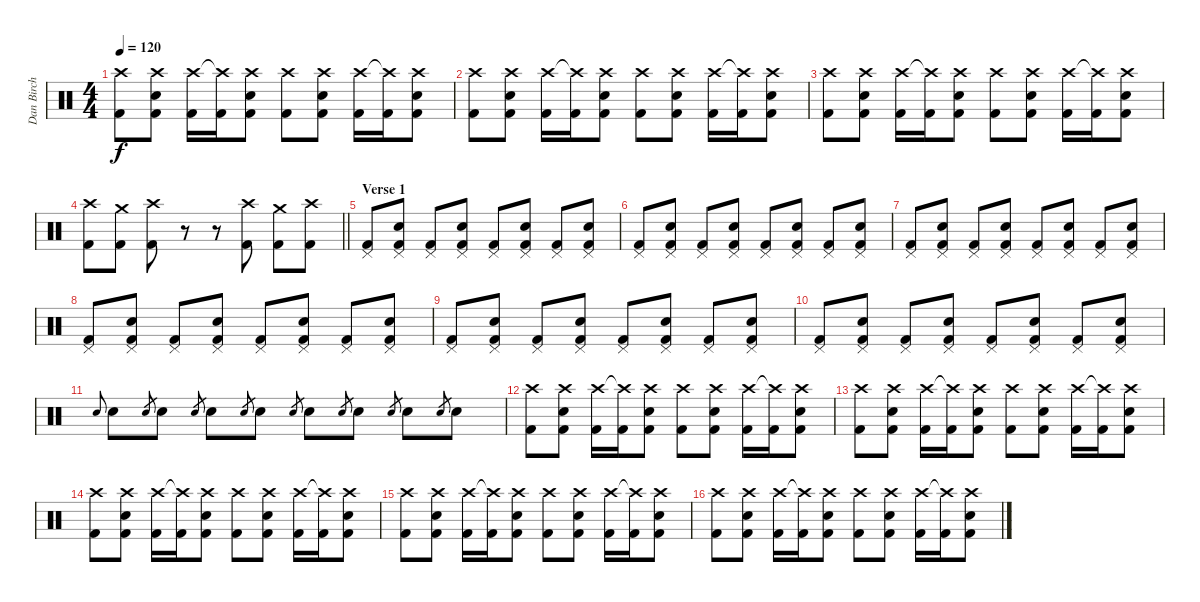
\track ("Dan Birch" "Dan Birch") {instrument percussion}
\staff {score}
\articulation defaults
\ts (4 4)
\tempo 120
\clef neutral
\ks c
("Crash high (hit)" "Kick (hit) 2").8{dy f} ("Crash high (hit)" "Snare (hit) 2" "Kick (hit) 2").8 ("Crash high (hit)" "Kick (hit) 2").16 ("Crash high (hit)"{t} "Kick (hit) 2").16 ("Crash high (hit)" "Snare (hit) 2" "Kick (hit) 2").8 ("Crash high (hit)" "Kick (hit) 2").8 ("Crash high (hit)" "Snare (hit) 2" "Kick (hit) 2").8 ("Crash high (hit)" "Kick (hit) 2").16 ("Crash high (hit)"{t} "Kick (hit) 2").16 ("Crash high (hit)" "Snare (hit) 2" "Kick (hit) 2").8 |
("Crash high (hit)" "Kick (hit) 2").8 ("Crash high (hit)" "Snare (hit) 2" "Kick (hit) 2").8 ("Crash high (hit)" "Kick (hit) 2").16 ("Crash high (hit)"{t} "Kick (hit) 2").16 ("Crash high (hit)" "Snare (hit) 2" "Kick (hit) 2").8 ("Crash high (hit)" "Kick (hit) 2").8 ("Crash high (hit)" "Snare (hit) 2" "Kick (hit) 2").8 ("Crash high (hit)" "Kick (hit) 2").16 ("Crash high (hit)"{t} "Kick (hit) 2").16 ("Crash high (hit)" "Snare (hit) 2" "Kick (hit) 2").8 |
("Crash high (hit)" "Kick (hit) 2").8 ("Crash high (hit)" "Snare (hit) 2" "Kick (hit) 2").8 ("Crash high (hit)" "Kick (hit) 2").16 ("Crash high (hit)"{t} "Kick (hit) 2").16 ("Crash high (hit)" "Snare (hit) 2" "Kick (hit) 2").8 ("Crash high (hit)" "Kick (hit) 2").8 ("Crash high (hit)" "Snare (hit) 2" "Kick (hit) 2").8 ("Crash high (hit)" "Kick (hit) 2").16 ("Crash high (hit)"{t} "Kick (hit) 2").16 ("Crash high (hit)" "Snare (hit) 2" "Kick (hit) 2").8 |
\barLineRight lightlight
("Crash high (hit)" "Kick (hit) 2").8 ("Crash medium (hit)" "Kick (hit) 2").8 ("Crash high (hit)" "Kick (hit) 2").8 r.8 r.8 ("Crash high (hit)" "Kick (hit) 2").8 ("Crash medium (hit)" "Kick (hit) 2").8 ("Crash high (hit)" "Kick (hit) 2").8 |
\section ("" "Verse 1")
("Pedal Hi-Hat (hit)" "Kick (hit) 2").8 ("Pedal Hi-Hat (hit)" "Snare (hit) 2" "Kick (hit) 2").8 ("Pedal Hi-Hat (hit)" "Kick (hit) 2").8 ("Pedal Hi-Hat (hit)" "Snare (hit) 2" "Kick (hit) 2").8 ("Pedal Hi-Hat (hit)" "Kick (hit) 2").8 ("Pedal Hi-Hat (hit)" "Snare (hit) 2" "Kick (hit) 2").8 ("Pedal Hi-Hat (hit)" "Kick (hit) 2").8 ("Pedal Hi-Hat (hit)" "Snare (hit) 2" "Kick (hit) 2").8 |
("Pedal Hi-Hat (hit)" "Kick (hit) 2").8 ("Pedal Hi-Hat (hit)" "Snare (hit) 2" "Kick (hit) 2").8 ("Pedal Hi-Hat (hit)" "Kick (hit) 2").8 ("Pedal Hi-Hat (hit)" "Snare (hit) 2" "Kick (hit) 2").8 ("Pedal Hi-Hat (hit)" "Kick (hit) 2").8 ("Pedal Hi-Hat (hit)" "Snare (hit) 2" "Kick (hit) 2").8 ("Pedal Hi-Hat (hit)" "Kick (hit) 2").8 ("Pedal Hi-Hat (hit)" "Snare (hit) 2" "Kick (hit) 2").8 |
("Pedal Hi-Hat (hit)" "Kick (hit) 2").8 ("Pedal Hi-Hat (hit)" "Snare (hit) 2" "Kick (hit) 2").8 ("Pedal Hi-Hat (hit)" "Kick (hit) 2").8 ("Pedal Hi-Hat (hit)" "Snare (hit) 2" "Kick (hit) 2").8 ("Pedal Hi-Hat (hit)" "Kick (hit) 2").8 ("Pedal Hi-Hat (hit)" "Snare (hit) 2" "Kick (hit) 2").8 ("Pedal Hi-Hat (hit)" "Kick (hit) 2").8 ("Pedal Hi-Hat (hit)" "Snare (hit) 2" "Kick (hit) 2").8 |
("Pedal Hi-Hat (hit)" "Kick (hit) 2").8 ("Pedal Hi-Hat (hit)" "Snare (hit) 2" "Kick (hit) 2").8 ("Pedal Hi-Hat (hit)" "Kick (hit) 2").8 ("Pedal Hi-Hat (hit)" "Snare (hit) 2" "Kick (hit) 2").8 ("Pedal Hi-Hat (hit)" "Kick (hit) 2").8 ("Pedal Hi-Hat (hit)" "Snare (hit) 2" "Kick (hit) 2").8 ("Pedal Hi-Hat (hit)" "Kick (hit) 2").8 ("Pedal Hi-Hat (hit)" "Snare (hit) 2" "Kick (hit) 2").8 |
("Pedal Hi-Hat (hit)" "Kick (hit) 2").8 ("Pedal Hi-Hat (hit)" "Snare (hit) 2" "Kick (hit) 2").8 ("Pedal Hi-Hat (hit)" "Kick (hit) 2").8 ("Pedal Hi-Hat (hit)" "Snare (hit) 2" "Kick (hit) 2").8 ("Pedal Hi-Hat (hit)" "Kick (hit) 2").8 ("Pedal Hi-Hat (hit)" "Snare (hit) 2" "Kick (hit) 2").8 ("Pedal Hi-Hat (hit)" "Kick (hit) 2").8 ("Pedal Hi-Hat (hit)" "Snare (hit) 2" "Kick (hit) 2").8 |
("Pedal Hi-Hat (hit)" "Kick (hit) 2").8 ("Pedal Hi-Hat (hit)" "Snare (hit) 2" "Kick (hit) 2").8 ("Pedal Hi-Hat (hit)" "Kick (hit) 2").8 ("Pedal Hi-Hat (hit)" "Snare (hit) 2" "Kick (hit) 2").8 ("Pedal Hi-Hat (hit)" "Kick (hit) 2").8 ("Pedal Hi-Hat (hit)" "Snare (hit) 2" "Kick (hit) 2").8 ("Pedal Hi-Hat (hit)" "Kick (hit) 2").8 ("Pedal Hi-Hat (hit)" "Snare (hit) 2" "Kick (hit) 2").8 |
"Snare (hit) 2".8{gr onbeat} "Snare (hit) 2".8 "Snare (hit) 2".8{gr} "Snare (hit) 2".8 "Snare (hit) 2".8{gr} "Snare (hit) 2".8 "Snare (hit) 2".8{gr} "Snare (hit) 2".8 "Snare (hit) 2".8{gr} "Snare (hit) 2".8 "Snare (hit) 2".8{gr} "Snare (hit) 2".8 "Snare (hit) 2".8{gr} "Snare (hit) 2".8 "Snare (hit) 2".8{gr} "Snare (hit) 2".8 |
("Crash high (hit)" "Kick (hit) 2").8 ("Crash high (hit)" "Snare (hit) 2" "Kick (hit) 2").8 ("Crash high (hit)" "Kick (hit) 2").16 ("Crash high (hit)"{t} "Kick (hit) 2").16 ("Crash high (hit)" "Snare (hit) 2" "Kick (hit) 2").8 ("Crash high (hit)" "Kick (hit) 2").8 ("Crash high (hit)" "Snare (hit) 2" "Kick (hit) 2").8 ("Crash high (hit)" "Kick (hit) 2").16 ("Crash high (hit)"{t} "Kick (hit) 2").16 ("Crash high (hit)" "Snare (hit) 2" "Kick (hit) 2").8 |
("Crash high (hit)" "Kick (hit) 2").8 ("Crash high (hit)" "Snare (hit) 2" "Kick (hit) 2").8 ("Crash high (hit)" "Kick (hit) 2").16 ("Crash high (hit)"{t} "Kick (hit) 2").16 ("Crash high (hit)" "Snare (hit) 2" "Kick (hit) 2").8 ("Crash high (hit)" "Kick (hit) 2").8 ("Crash high (hit)" "Snare (hit) 2" "Kick (hit) 2").8 ("Crash high (hit)" "Kick (hit) 2").16 ("Crash high (hit)"{t} "Kick (hit) 2").16 ("Crash high (hit)" "Snare (hit) 2" "Kick (hit) 2").8 |
("Crash high (hit)" "Kick (hit) 2").8 ("Crash high (hit)" "Snare (hit) 2" "Kick (hit) 2").8 ("Crash high (hit)" "Kick (hit) 2").16 ("Crash high (hit)"{t} "Kick (hit) 2").16 ("Crash high (hit)" "Snare (hit) 2" "Kick (hit) 2").8 ("Crash high (hit)" "Kick (hit) 2").8 ("Crash high (hit)" "Snare (hit) 2" "Kick (hit) 2").8 ("Crash high (hit)" "Kick (hit) 2").16 ("Crash high (hit)"{t} "Kick (hit) 2").16 ("Crash high (hit)" "Snare (hit) 2" "Kick (hit) 2").8 |
("Crash high (hit)" "Kick (hit) 2").8 ("Crash high (hit)" "Snare (hit) 2" "Kick (hit) 2").8 ("Crash high (hit)" "Kick (hit) 2").16 ("Crash high (hit)"{t} "Kick (hit) 2").16 ("Crash high (hit)" "Snare (hit) 2" "Kick (hit) 2").8 ("Crash high (hit)" "Kick (hit) 2").8 ("Crash high (hit)" "Snare (hit) 2" "Kick (hit) 2").8 ("Crash high (hit)" "Kick (hit) 2").16 ("Crash high (hit)"{t} "Kick (hit) 2").16 ("Crash high (hit)" "Snare (hit) 2" "Kick (hit) 2").8 |
("Crash high (hit)" "Kick (hit) 2").8 ("Crash high (hit)" "Snare (hit) 2" "Kick (hit) 2").8 ("Crash high (hit)" "Kick (hit) 2").16 ("Crash high (hit)"{t} "Kick (hit) 2").16 ("Crash high (hit)" "Snare (hit) 2" "Kick (hit) 2").8 ("Crash high (hit)" "Kick (hit) 2").8 ("Crash high (hit)" "Snare (hit) 2" "Kick (hit) 2").8 ("Crash high (hit)" "Kick (hit) 2").16 ("Crash high (hit)"{t} "Kick (hit) 2").16 ("Crash high (hit)" "Snare (hit) 2" "Kick (hit) 2").8
